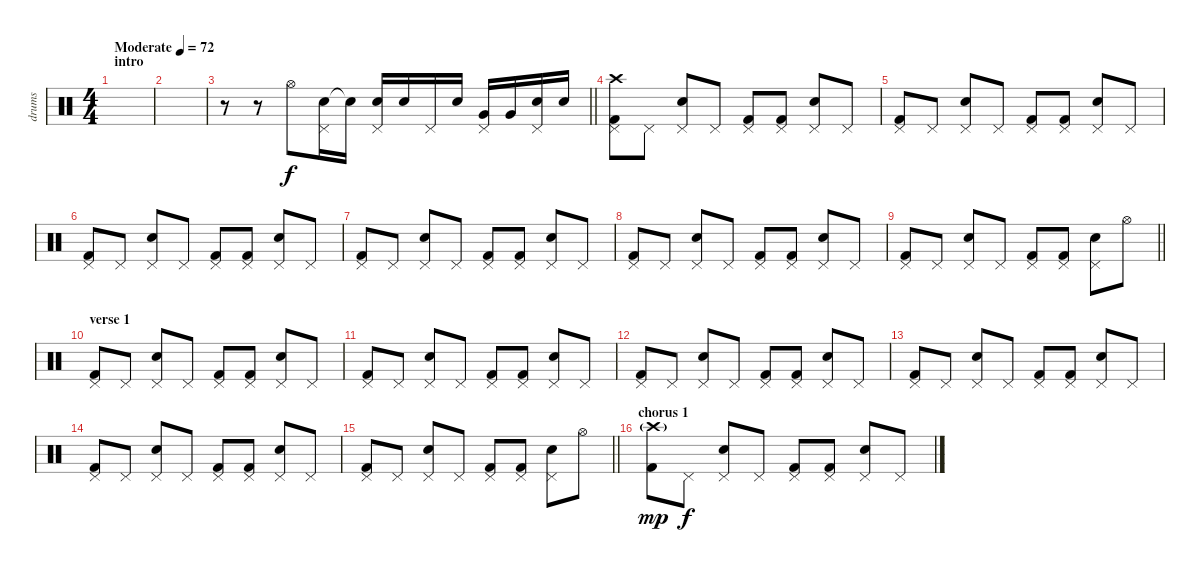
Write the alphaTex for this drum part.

\track ("drums" "drums") {instrument percussion}
\staff {score}
\articulation defaults
\ts (4 4)
\section ("" "intro")
\tempo (72 "Moderate")
\clef neutral
\ks c
|
|
\barLineRight lightlight
r.8 r.8 "Hi-Hat (open)".8 ("Electric Snare (hit)" "Pedal Hi-Hat (hit)").16 "Electric Snare (hit)"{t}.16 ("Electric Snare (hit)" "Pedal Hi-Hat (hit)").16 "Electric Snare (hit)".16 "Pedal Hi-Hat (hit)".16 "Electric Snare (hit)".16 ("Very Low Tom (hit)" "Pedal Hi-Hat (hit)").16 "Very Low Tom (hit)".16 ("Electric Snare (hit)" "Pedal Hi-Hat (hit)").16 "Electric Snare (hit)".16 |
("Kick (hit) 2" "Pedal Hi-Hat (hit)" "Crash high (hit)").8 "Pedal Hi-Hat (hit)".8 ("Electric Snare (hit)" "Pedal Hi-Hat (hit)").8 "Pedal Hi-Hat (hit)".8 ("Kick (hit) 2" "Pedal Hi-Hat (hit)").8 ("Kick (hit) 2" "Pedal Hi-Hat (hit)").8 ("Electric Snare (hit)" "Pedal Hi-Hat (hit)").8 "Pedal Hi-Hat (hit)".8 |
("Kick (hit) 2" "Pedal Hi-Hat (hit)").8 "Pedal Hi-Hat (hit)".8 ("Electric Snare (hit)" "Pedal Hi-Hat (hit)").8 "Pedal Hi-Hat (hit)".8 ("Kick (hit) 2" "Pedal Hi-Hat (hit)").8 ("Kick (hit) 2" "Pedal Hi-Hat (hit)").8 ("Electric Snare (hit)" "Pedal Hi-Hat (hit)").8 "Pedal Hi-Hat (hit)".8 |
("Kick (hit) 2" "Pedal Hi-Hat (hit)").8 "Pedal Hi-Hat (hit)".8 ("Electric Snare (hit)" "Pedal Hi-Hat (hit)").8 "Pedal Hi-Hat (hit)".8 ("Kick (hit) 2" "Pedal Hi-Hat (hit)").8 ("Kick (hit) 2" "Pedal Hi-Hat (hit)").8 ("Electric Snare (hit)" "Pedal Hi-Hat (hit)").8 "Pedal Hi-Hat (hit)".8 |
("Kick (hit) 2" "Pedal Hi-Hat (hit)").8 "Pedal Hi-Hat (hit)".8 ("Electric Snare (hit)" "Pedal Hi-Hat (hit)").8 "Pedal Hi-Hat (hit)".8 ("Kick (hit) 2" "Pedal Hi-Hat (hit)").8 ("Kick (hit) 2" "Pedal Hi-Hat (hit)").8 ("Electric Snare (hit)" "Pedal Hi-Hat (hit)").8 "Pedal Hi-Hat (hit)".8 |
("Kick (hit) 2" "Pedal Hi-Hat (hit)").8 "Pedal Hi-Hat (hit)".8 ("Electric Snare (hit)" "Pedal Hi-Hat (hit)").8 "Pedal Hi-Hat (hit)".8 ("Kick (hit) 2" "Pedal Hi-Hat (hit)").8 ("Kick (hit) 2" "Pedal Hi-Hat (hit)").8 ("Electric Snare (hit)" "Pedal Hi-Hat (hit)").8 "Pedal Hi-Hat (hit)".8 |
\barLineRight lightlight
("Kick (hit) 2" "Pedal Hi-Hat (hit)").8 "Pedal Hi-Hat (hit)".8 ("Electric Snare (hit)" "Pedal Hi-Hat (hit)").8 "Pedal Hi-Hat (hit)".8 ("Kick (hit) 2" "Pedal Hi-Hat (hit)").8 ("Kick (hit) 2" "Pedal Hi-Hat (hit)").8 ("Electric Snare (hit)" "Pedal Hi-Hat (hit)").8 "Hi-Hat (open)".8 |
\section ("" "verse 1")
("Kick (hit) 2" "Pedal Hi-Hat (hit)").8 "Pedal Hi-Hat (hit)".8 ("Electric Snare (hit)" "Pedal Hi-Hat (hit)").8 "Pedal Hi-Hat (hit)".8 ("Kick (hit) 2" "Pedal Hi-Hat (hit)").8 ("Kick (hit) 2" "Pedal Hi-Hat (hit)").8 ("Electric Snare (hit)" "Pedal Hi-Hat (hit)").8 "Pedal Hi-Hat (hit)".8 |
("Kick (hit) 2" "Pedal Hi-Hat (hit)").8 "Pedal Hi-Hat (hit)".8 ("Electric Snare (hit)" "Pedal Hi-Hat (hit)").8 "Pedal Hi-Hat (hit)".8 ("Kick (hit) 2" "Pedal Hi-Hat (hit)").8 ("Kick (hit) 2" "Pedal Hi-Hat (hit)").8 ("Electric Snare (hit)" "Pedal Hi-Hat (hit)").8 "Pedal Hi-Hat (hit)".8 |
("Kick (hit) 2" "Pedal Hi-Hat (hit)").8 "Pedal Hi-Hat (hit)".8 ("Electric Snare (hit)" "Pedal Hi-Hat (hit)").8 "Pedal Hi-Hat (hit)".8 ("Kick (hit) 2" "Pedal Hi-Hat (hit)").8 ("Kick (hit) 2" "Pedal Hi-Hat (hit)").8 ("Electric Snare (hit)" "Pedal Hi-Hat (hit)").8 "Pedal Hi-Hat (hit)".8 |
("Kick (hit) 2" "Pedal Hi-Hat (hit)").8 "Pedal Hi-Hat (hit)".8 ("Electric Snare (hit)" "Pedal Hi-Hat (hit)").8 "Pedal Hi-Hat (hit)".8 ("Kick (hit) 2" "Pedal Hi-Hat (hit)").8 ("Kick (hit) 2" "Pedal Hi-Hat (hit)").8 ("Electric Snare (hit)" "Pedal Hi-Hat (hit)").8 "Pedal Hi-Hat (hit)".8 |
("Kick (hit) 2" "Pedal Hi-Hat (hit)").8 "Pedal Hi-Hat (hit)".8 ("Electric Snare (hit)" "Pedal Hi-Hat (hit)").8 "Pedal Hi-Hat (hit)".8 ("Kick (hit) 2" "Pedal Hi-Hat (hit)").8 ("Kick (hit) 2" "Pedal Hi-Hat (hit)").8 ("Electric Snare (hit)" "Pedal Hi-Hat (hit)").8 "Pedal Hi-Hat (hit)".8 |
\barLineRight lightlight
("Kick (hit) 2" "Pedal Hi-Hat (hit)").8 "Pedal Hi-Hat (hit)".8 ("Electric Snare (hit)" "Pedal Hi-Hat (hit)").8 "Pedal Hi-Hat (hit)".8 ("Kick (hit) 2" "Pedal Hi-Hat (hit)").8 ("Kick (hit) 2" "Pedal Hi-Hat (hit)").8 ("Electric Snare (hit)" "Pedal Hi-Hat (hit)").8 "Hi-Hat (open)".8 |
\section ("" "chorus 1")
("Kick (hit) 2" "Crash high (hit)"{g}).8{dy mp} "Pedal Hi-Hat (hit)".8{dy f} ("Electric Snare (hit)" "Pedal Hi-Hat (hit)").8 "Pedal Hi-Hat (hit)".8 ("Kick (hit) 2" "Pedal Hi-Hat (hit)").8 ("Kick (hit) 2" "Pedal Hi-Hat (hit)").8 ("Electric Snare (hit)" "Pedal Hi-Hat (hit)").8 "Pedal Hi-Hat (hit)".8
